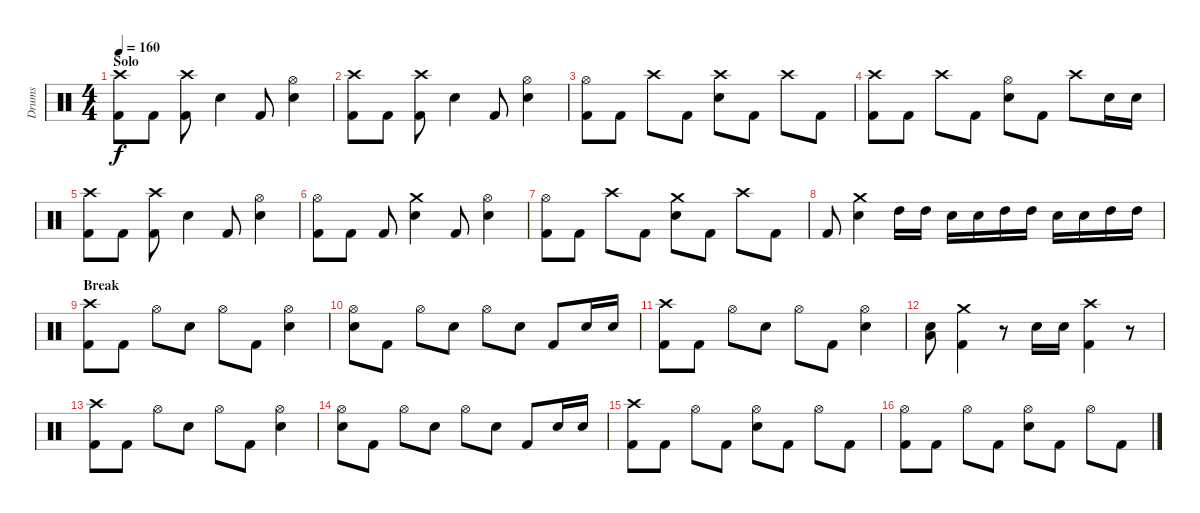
\track ("Drums" "Drums") {instrument percussion}
\staff {score}
\articulation defaults
\ts (4 4)
\section ("" "Solo")
\tempo 160
\clef neutral
\ks c
("Kick (hit) 2" "Crash high (hit)").8{dy f} "Kick (hit) 2".8 ("Kick (hit) 2" "Crash high (hit)").8 "Electric Snare (hit)".4 "Kick (hit) 2".8 ("Electric Snare (hit)" "Hi-Hat (open)").4 |
("Kick (hit) 2" "Crash high (hit)").8 "Kick (hit) 2".8 ("Kick (hit) 2" "Crash high (hit)").8 "Electric Snare (hit)".4 "Kick (hit) 2".8 ("Electric Snare (hit)" "Hi-Hat (open)").4 |
("Kick (hit) 2" "Hi-Hat (open)").8 "Kick (hit) 2".8 "Crash high (hit)".8 "Kick (hit) 2".8 ("Electric Snare (hit)" "Crash high (hit)").8 "Kick (hit) 2".8 "Crash high (hit)".8 "Kick (hit) 2".8 |
("Kick (hit) 2" "Crash high (hit)").8 "Kick (hit) 2".8 "Crash high (hit)".8 "Kick (hit) 2".8 ("Electric Snare (hit)" "Hi-Hat (open)").8 "Kick (hit) 2".8 "Crash high (hit)".8 "Electric Snare (hit)".16 "Electric Snare (hit)".16 |
("Kick (hit) 2" "Crash high (hit)").8 "Kick (hit) 2".8 ("Kick (hit) 2" "Crash high (hit)").8 "Electric Snare (hit)".4 "Kick (hit) 2".8 ("Electric Snare (hit)" "Hi-Hat (open)").4 |
("Kick (hit) 2" "Hi-Hat (open)").8 "Kick (hit) 2".8 "Kick (hit) 2".8 ("Electric Snare (hit)" "Crash medium (hit)").4 "Kick (hit) 2".8 ("Electric Snare (hit)" "Hi-Hat (open)").4 |
("Kick (hit) 2" "Hi-Hat (open)").8 "Kick (hit) 2".8 "Crash high (hit)".8 "Kick (hit) 2".8 ("Electric Snare (hit)" "Crash medium (hit)").8 "Kick (hit) 2".8 "Crash high (hit)".8 "Kick (hit) 2".8 |
"Kick (hit) 2".8 ("Electric Snare (hit)" "Crash medium (hit)").4 "High Tom (hit)".16 "High Tom (hit)".16 "Electric Snare (hit)".16 "Electric Snare (hit)".16 "High Tom (hit)".16 "High Tom (hit)".16 "Electric Snare (hit)".16 "Electric Snare (hit)".16 "High Tom (hit)".16 "High Tom (hit)".16 |
\section ("" "Break")
("Kick (hit) 2" "Crash high (hit)").8 "Kick (hit) 2".8 "Hi-Hat (open)".8 "Electric Snare (hit)".8 "Hi-Hat (open)".8 "Kick (hit) 2".8 ("Hi-Hat (open)" "Electric Snare (hit)").4 |
("Electric Snare (hit)" "Hi-Hat (open)").8 "Kick (hit) 2".8 "Hi-Hat (open)".8 "Electric Snare (hit)".8 "Hi-Hat (open)".8 "Electric Snare (hit)".8 "Kick (hit) 2".8 "Electric Snare (hit)".16 "Electric Snare (hit)".16 |
("Kick (hit) 2" "Crash high (hit)").8 "Kick (hit) 2".8 "Hi-Hat (open)".8 "Electric Snare (hit)".8 "Hi-Hat (open)".8 "Kick (hit) 2".8 ("Hi-Hat (open)" "Electric Snare (hit)").4 |
("Low Floor Tom (hit)" "Electric Snare (hit)").8 ("Kick (hit) 2" "Crash medium (hit)").4 r.8 "Electric Snare (hit)".16 "Electric Snare (hit)".16 ("Kick (hit) 2" "Crash high (hit)").4 r.8 |
("Kick (hit) 2" "Crash high (hit)").8 "Kick (hit) 2".8 "Hi-Hat (open)".8 "Electric Snare (hit)".8 "Hi-Hat (open)".8 "Kick (hit) 2".8 ("Hi-Hat (open)" "Electric Snare (hit)").4 |
("Electric Snare (hit)" "Hi-Hat (open)").8 "Kick (hit) 2".8 "Hi-Hat (open)".8 "Electric Snare (hit)".8 "Hi-Hat (open)".8 "Electric Snare (hit)".8 "Kick (hit) 2".8 "Electric Snare (hit)".16 "Electric Snare (hit)".16 |
("Kick (hit) 2" "Crash high (hit)").8 "Kick (hit) 2".8 "Hi-Hat (open)".8 "Kick (hit) 2".8 ("Hi-Hat (open)" "Electric Snare (hit)").8 "Kick (hit) 2".8 "Hi-Hat (open)".8 "Kick (hit) 2".8 |
("Kick (hit) 2" "Hi-Hat (open)").8 "Kick (hit) 2".8 "Hi-Hat (open)".8 "Kick (hit) 2".8 ("Hi-Hat (open)" "Electric Snare (hit)").8 "Kick (hit) 2".8 "Hi-Hat (open)".8 "Kick (hit) 2".8
